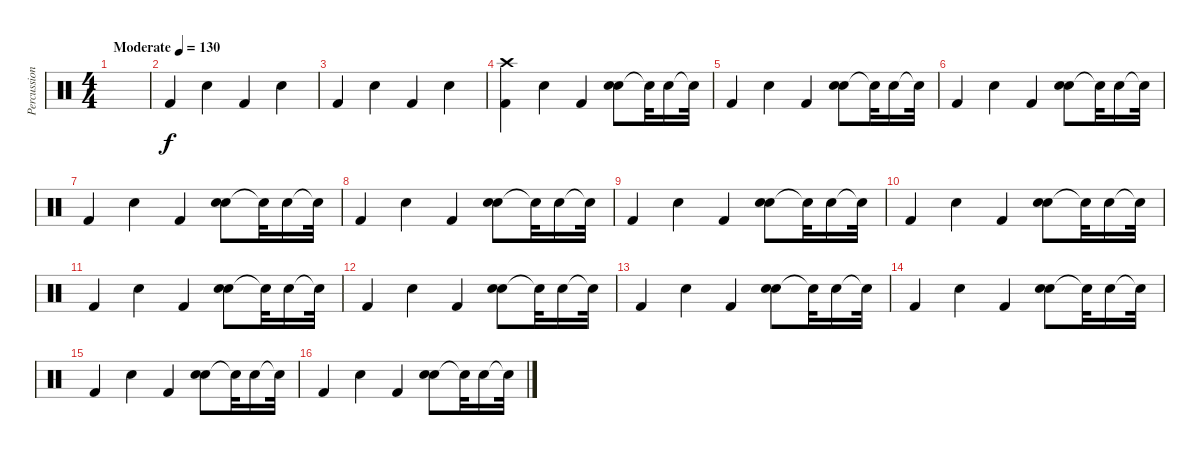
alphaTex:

\track ("Percussion" "Percussion") {instrument percussion}
\staff {score}
\articulation defaults
\ts (4 4)
\tempo (130 "Moderate")
\clef neutral
\ks c
|
"Kick (hit) 2".4 "Snare (hit) 2".4 "Kick (hit) 2".4 "Snare (hit) 2".4 |
"Kick (hit) 2".4 "Snare (hit) 2".4 "Kick (hit) 2".4 "Snare (hit) 2".4 |
("Crash high (hit)" "Kick (hit) 2").4 "Snare (hit) 2".4 "Kick (hit) 2".4 ("Hand Clap (hit)" "Snare (hit) 2").8 "Hand Clap (hit)"{t}.32 "Hand Clap (hit)".16 "Snare (hit)"{t}.32 |
"Kick (hit) 2".4 "Snare (hit) 2".4 "Kick (hit) 2".4 ("Hand Clap (hit)" "Snare (hit) 2").8 "Hand Clap (hit)"{t}.32 "Hand Clap (hit)".16 "Snare (hit)"{t}.32 |
"Kick (hit) 2".4 "Snare (hit) 2".4 "Kick (hit) 2".4 ("Hand Clap (hit)" "Snare (hit) 2").8 "Hand Clap (hit)"{t}.32 "Hand Clap (hit)".16 "Snare (hit)"{t}.32 |
"Kick (hit) 2".4 "Snare (hit) 2".4 "Kick (hit) 2".4 ("Hand Clap (hit)" "Snare (hit) 2").8 "Hand Clap (hit)"{t}.32 "Hand Clap (hit)".16 "Snare (hit)"{t}.32 |
"Kick (hit) 2".4 "Snare (hit) 2".4 "Kick (hit) 2".4 ("Hand Clap (hit)" "Snare (hit) 2").8 "Hand Clap (hit)"{t}.32 "Hand Clap (hit)".16 "Snare (hit)"{t}.32 |
"Kick (hit) 2".4 "Snare (hit) 2".4 "Kick (hit) 2".4 ("Hand Clap (hit)" "Snare (hit) 2").8 "Hand Clap (hit)"{t}.32 "Hand Clap (hit)".16 "Snare (hit)"{t}.32 |
"Kick (hit) 2".4 "Snare (hit) 2".4 "Kick (hit) 2".4 ("Hand Clap (hit)" "Snare (hit) 2").8 "Hand Clap (hit)"{t}.32 "Hand Clap (hit)".16 "Snare (hit)"{t}.32 |
"Kick (hit) 2".4 "Snare (hit) 2".4 "Kick (hit) 2".4 ("Hand Clap (hit)" "Snare (hit) 2").8 "Hand Clap (hit)"{t}.32 "Hand Clap (hit)".16 "Snare (hit)"{t}.32 |
"Kick (hit) 2".4 "Snare (hit) 2".4 "Kick (hit) 2".4 ("Hand Clap (hit)" "Snare (hit) 2").8 "Hand Clap (hit)"{t}.32 "Hand Clap (hit)".16 "Snare (hit)"{t}.32 |
"Kick (hit) 2".4 "Snare (hit) 2".4 "Kick (hit) 2".4 ("Hand Clap (hit)" "Snare (hit) 2").8 "Hand Clap (hit)"{t}.32 "Hand Clap (hit)".16 "Snare (hit)"{t}.32 |
"Kick (hit) 2".4 "Snare (hit) 2".4 "Kick (hit) 2".4 ("Hand Clap (hit)" "Snare (hit) 2").8 "Hand Clap (hit)"{t}.32 "Hand Clap (hit)".16 "Snare (hit)"{t}.32 |
"Kick (hit) 2".4 "Snare (hit) 2".4 "Kick (hit) 2".4 ("Hand Clap (hit)" "Snare (hit) 2").8 "Hand Clap (hit)"{t}.32 "Hand Clap (hit)".16 "Snare (hit)"{t}.32 |
"Kick (hit) 2".4 "Snare (hit) 2".4 "Kick (hit) 2".4 ("Hand Clap (hit)" "Snare (hit) 2").8 "Hand Clap (hit)"{t}.32 "Hand Clap (hit)".16 "Snare (hit)"{t}.32
